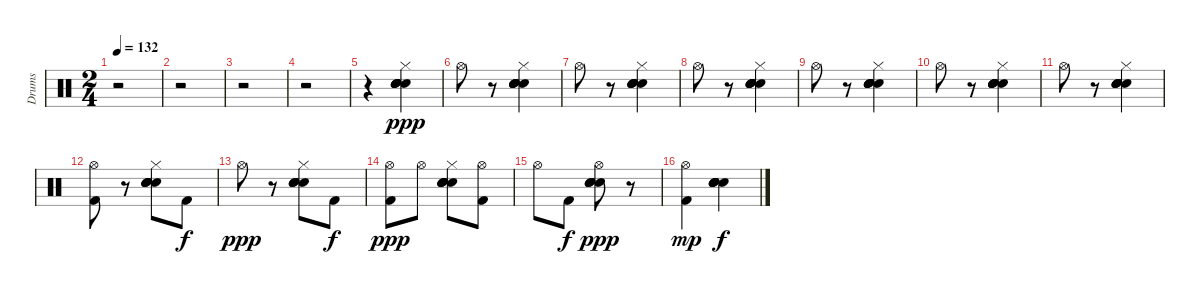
\track ("Drums" "Drums") {instrument percussion}
\staff {score}
\articulation defaults
\ts (2 4)
\tempo 132
\clef neutral
\ks c
r.2{dy f} |
r.2 |
r.2 |
r.2 |
r.4 ("Hand Clap (hit)" "Hand Clap (hit)" "Hand Clap (hit)" "Hand Clap (hit)" "Hand Clap (hit)" "Hi-Hat (closed)").4{bd 60 dy ppp volume 16} |
"Hi-Hat (open)".8 r.8 ("Hand Clap (hit)" "Hand Clap (hit)" "Hand Clap (hit)" "Hand Clap (hit)" "Hand Clap (hit)" "Hi-Hat (closed)").4{bd 60} |
"Hi-Hat (open)".8 r.8 ("Hand Clap (hit)" "Hand Clap (hit)" "Hand Clap (hit)" "Hand Clap (hit)" "Hand Clap (hit)" "Hi-Hat (closed)").4{bd 60} |
"Hi-Hat (open)".8 r.8 ("Hand Clap (hit)" "Hand Clap (hit)" "Hand Clap (hit)" "Hand Clap (hit)" "Hand Clap (hit)" "Hi-Hat (closed)").4{bd 60} |
"Hi-Hat (open)".8 r.8 ("Hand Clap (hit)" "Hand Clap (hit)" "Hand Clap (hit)" "Hand Clap (hit)" "Hand Clap (hit)" "Hi-Hat (closed)").4{bd 60} |
"Hi-Hat (open)".8 r.8 ("Hand Clap (hit)" "Hand Clap (hit)" "Hand Clap (hit)" "Hand Clap (hit)" "Hand Clap (hit)" "Hi-Hat (closed)").4{bd 60} |
"Hi-Hat (open)".8 r.8 ("Hand Clap (hit)" "Hand Clap (hit)" "Hand Clap (hit)" "Hand Clap (hit)" "Hand Clap (hit)" "Hi-Hat (closed)").4{bd 60} |
("Kick (hit) 2" "Hi-Hat (open)").8 r.8 ("Hand Clap (hit)" "Hand Clap (hit)" "Hand Clap (hit)" "Hand Clap (hit)" "Hand Clap (hit)" "Hi-Hat (closed)").8{bd 60} "Kick (hit) 2".8{dy f} |
"Hi-Hat (open)".8{dy ppp} r.8 ("Hand Clap (hit)" "Hand Clap (hit)" "Hand Clap (hit)" "Hand Clap (hit)" "Hand Clap (hit)" "Hi-Hat (closed)").8{bd 60} "Kick (hit) 2".8{dy f} |
("Kick (hit) 2" "Hi-Hat (open)").8{dy ppp} "Hi-Hat (open)".8 ("Hand Clap (hit)" "Hand Clap (hit)" "Hand Clap (hit)" "Hand Clap (hit)" "Hand Clap (hit)" "Hi-Hat (closed)").8{bd 60} ("Kick (hit) 2" "Hi-Hat (open)").8 |
"Hi-Hat (open)".8 "Kick (hit) 2".8{dy f} ("Hand Clap (hit)" "Hand Clap (hit)" "Hand Clap (hit)" "Hand Clap (hit)" "Hand Clap (hit)" "Hi-Hat (open)").8{bd 60 dy ppp} r.8 |
("Kick (hit) 2" "Hi-Hat (open)").4{dy mp} ("Hand Clap (hit)" "Hand Clap (hit)" "Hand Clap (hit)" "Hand Clap (hit)" "Hand Clap (hit)" "Hand Clap (hit)").4{bd 60 dy f}
